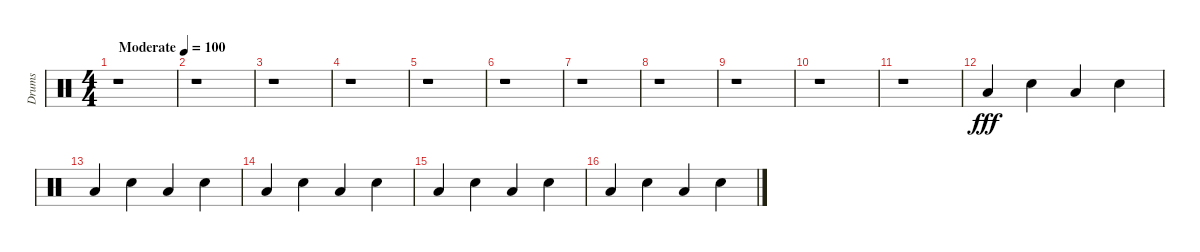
\track ("Drums" "Drums") {instrument percussion}
\staff {score}
\articulation defaults
\ts (4 4)
\tempo (100 "Moderate")
\clef neutral
\ks c
r.1{dy fff} |
r.1 |
r.1 |
r.1 |
r.1 |
r.1 |
r.1 |
r.1 |
r.1 |
r.1 |
r.1 |
"Low Tom (hit)".4 "Hand Clap (hit)".4 "Low Tom (hit)".4 "Hand Clap (hit)".4 |
"Low Tom (hit)".4 "Hand Clap (hit)".4 "Low Tom (hit)".4 "Hand Clap (hit)".4 |
"Low Tom (hit)".4 "Hand Clap (hit)".4 "Low Tom (hit)".4 "Hand Clap (hit)".4 |
"Low Tom (hit)".4 "Hand Clap (hit)".4 "Low Tom (hit)".4 "Hand Clap (hit)".4 |
"Low Tom (hit)".4 "Hand Clap (hit)".4 "Low Tom (hit)".4 "Hand Clap (hit)".4
